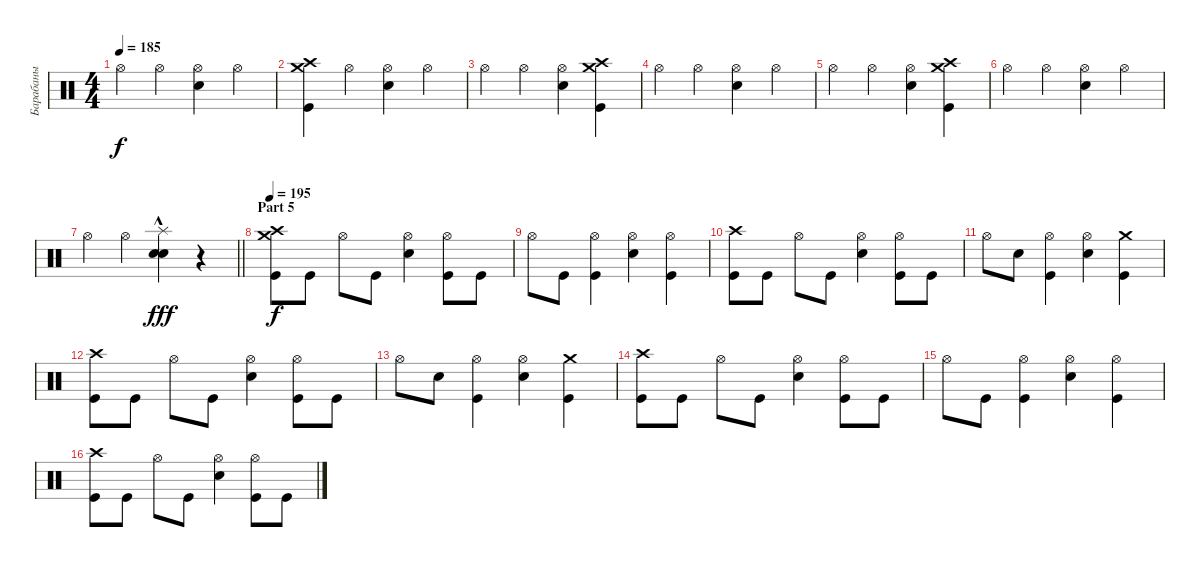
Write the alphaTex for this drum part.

\track ("Барабаны" "Барабаны") {instrument percussion}
\staff {score}
\articulation defaults
\ts (4 4)
\tempo 185
\clef neutral
\ks c "Hi-Hat (open)".4{dy f} "Hi-Hat (open)".4
("Hi-Hat (open)" "Electric Snare (hit)").4 "Hi-Hat (open)".4 |
("Crash medium (hit)" "Crash high (hit)" "Kick (hit)").4 "Hi-Hat (open)".4 ("Hi-Hat (open)" "Electric Snare (hit)").4 "Hi-Hat (open)".4 |
"Hi-Hat (open)".4 "Hi-Hat (open)".4 ("Hi-Hat (open)" "Electric Snare (hit)").4 ("Crash medium (hit)" "Crash high (hit)" "Kick (hit)").4 |
"Hi-Hat (open)".4 "Hi-Hat (open)".4 ("Hi-Hat (open)" "Electric Snare (hit)").4 "Hi-Hat (open)".4 |
"Hi-Hat (open)".4 "Hi-Hat (open)".4 ("Hi-Hat (open)" "Electric Snare (hit)").4 ("Crash medium (hit)" "Crash high (hit)" "Kick (hit)").4 |
"Hi-Hat (open)".4 "Hi-Hat (open)".4 ("Hi-Hat (open)" "Electric Snare (hit)").4 "Hi-Hat (open)".4 |
\barLineRight lightlight "Hi-Hat (open)".4 "Hi-Hat (open)".4
("Splash (hit)"{hac} "Electric Snare (hit)"{hac} "Electric Snare (hit)"{hac}).4{dy fff} r.4 |
\section ("" "Part 5")
\tempo 195
("Crash high (hit)" "Crash medium (hit)" "Kick (hit)").8{dy f} "Kick (hit)".8 "Hi-Hat (open)".8 "Kick (hit)".8 ("Hi-Hat (open)" "Electric Snare (hit)").4 ("Hi-Hat (open)" "Kick (hit)").8 "Kick (hit)".8 |
"Hi-Hat (open)".8 "Kick (hit)".8 ("Hi-Hat (open)" "Kick (hit)").4 ("Hi-Hat (open)" "Electric Snare (hit)").4 ("Hi-Hat (open)" "Kick (hit)").4 |
("Crash high (hit)" "Kick (hit)").8 "Kick (hit)".8 "Hi-Hat (open)".8 "Kick (hit)".8 ("Hi-Hat (open)" "Electric Snare (hit)").4 ("Hi-Hat (open)" "Kick (hit)").8 "Kick (hit)".8 |
"Hi-Hat (open)".8 "Electric Snare (hit)".8 ("Hi-Hat (open)" "Kick (hit)").4 ("Hi-Hat (open)" "Electric Snare (hit)").4 ("Crash medium (hit)" "Kick (hit)").4 |
("Crash high (hit)" "Kick (hit)").8 "Kick (hit)".8 "Hi-Hat (open)".8 "Kick (hit)".8 ("Hi-Hat (open)" "Electric Snare (hit)").4 ("Hi-Hat (open)" "Kick (hit)").8 "Kick (hit)".8 |
"Hi-Hat (open)".8 "Electric Snare (hit)".8 ("Hi-Hat (open)" "Kick (hit)").4 ("Hi-Hat (open)" "Electric Snare (hit)").4 ("Crash medium (hit)" "Kick (hit)").4 |
("Crash high (hit)" "Kick (hit)").8 "Kick (hit)".8 "Hi-Hat (open)".8 "Kick (hit)".8 ("Hi-Hat (open)" "Electric Snare (hit)").4 ("Hi-Hat (open)" "Kick (hit)").8 "Kick (hit)".8 |
"Hi-Hat (open)".8 "Kick (hit)".8 ("Hi-Hat (open)" "Kick (hit)").4 ("Hi-Hat (open)" "Electric Snare (hit)").4 ("Hi-Hat (open)" "Kick (hit)").4 |
("Crash high (hit)" "Kick (hit)").8 "Kick (hit)".8 "Hi-Hat (open)".8 "Kick (hit)".8 ("Hi-Hat (open)" "Electric Snare (hit)").4 ("Hi-Hat (open)" "Kick (hit)").8 "Kick (hit)".8
